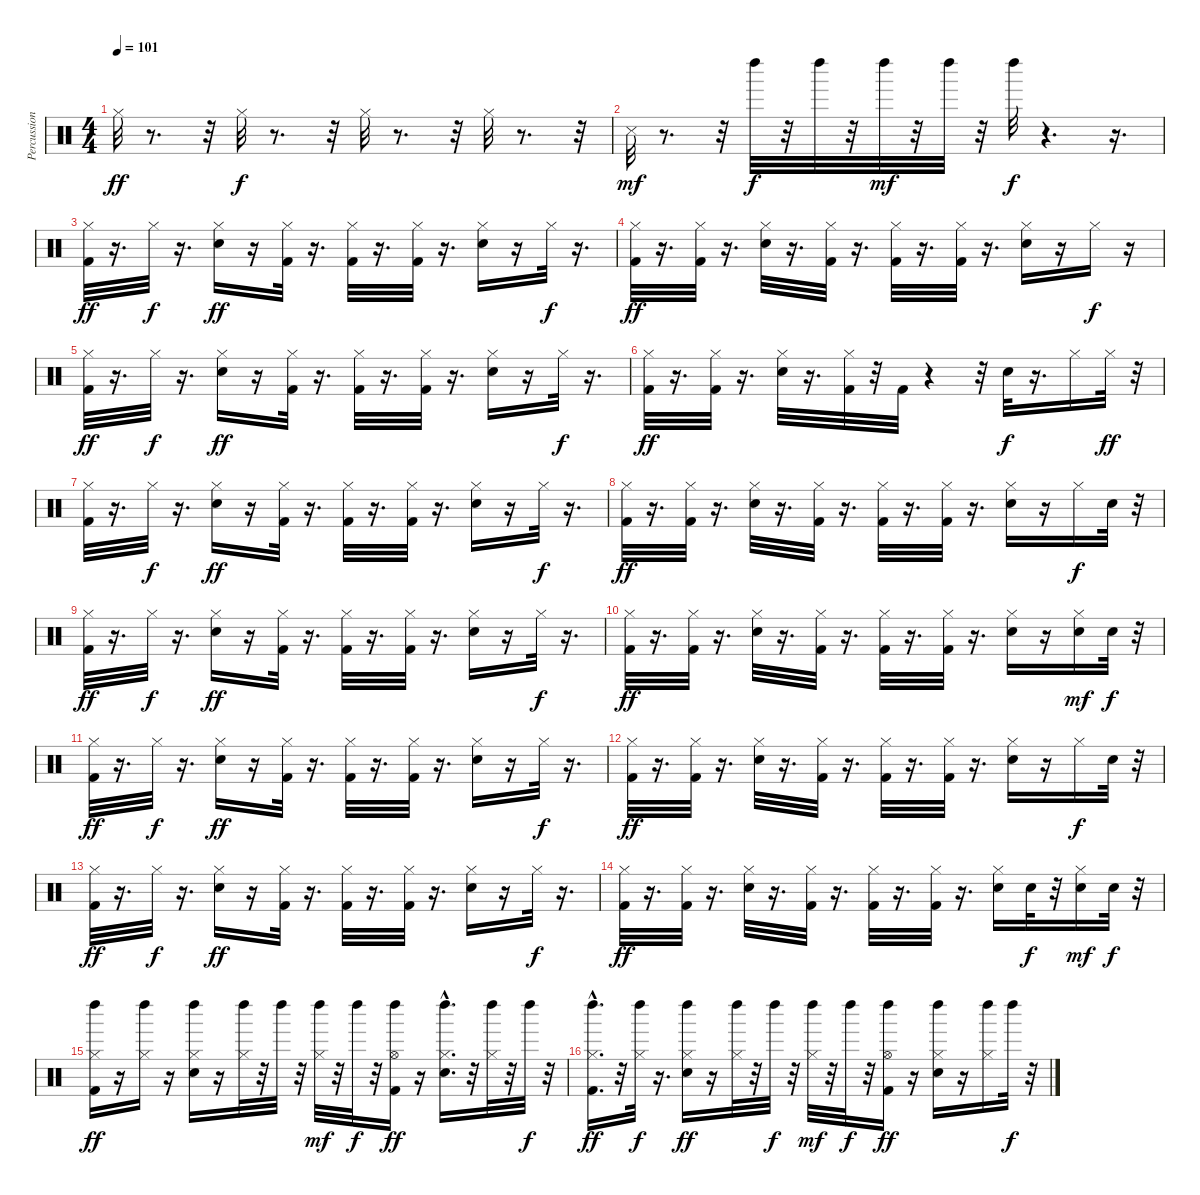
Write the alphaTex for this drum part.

\track ("Percussion" "Percussion") {instrument percussion}
\staff {score}
\articulation defaults
\ts (4 4)
\tempo 101
\clef neutral
\ks c "Hi-Hat (closed)".32{dy ff}
r.8{d} r.32 "Hi-Hat (closed)".32{dy f} r.8{d} r.32 "Hi-Hat (closed)".32 r.8{d} r.32 "Hi-Hat (closed)".32 r.8{d} r.32 |
"Snare (side stick) 3".32{dy mf} r.8{d} r.32 "Left Maraca (hit)".32{dy f} r.32 "Left Maraca (hit)".32 r.32 "Left Maraca (hit)".32{dy mf} r.32 "Left Maraca (hit)".32 r.32 "Left Maraca (hit)".32{dy f} r.4{d} r.16{d} |
("Kick (hit) 2" "Hi-Hat (closed)").32{dy ff} r.16{d} "Hi-Hat (closed)".32{dy f} r.16{d} ("Snare (hit) 2" "Hi-Hat (closed)").16{dy ff} r.16 ("Kick (hit) 2" "Hi-Hat (closed)").32 r.16{d} ("Kick (hit) 2" "Hi-Hat (closed)").32 r.16{d} ("Kick (hit) 2" "Hi-Hat (closed)").32 r.16{d} ("Snare (hit) 2" "Hi-Hat (closed)").16 r.16 "Hi-Hat (closed)".32{dy f} r.16{d} |
("Kick (hit) 2" "Hi-Hat (closed)").32{dy ff} r.16{d} ("Kick (hit) 2" "Hi-Hat (closed)").32 r.16{d} ("Snare (hit) 2" "Hi-Hat (closed)").32 r.16{d} ("Kick (hit) 2" "Hi-Hat (closed)").32 r.16{d} ("Kick (hit) 2" "Hi-Hat (closed)").32 r.16{d} ("Kick (hit) 2" "Hi-Hat (closed)").32 r.16{d} ("Snare (hit) 2" "Hi-Hat (closed)").16 r.16 "Hi-Hat (closed)".16{dy f} r.16 |
("Kick (hit) 2" "Hi-Hat (closed)").32{dy ff} r.16{d} "Hi-Hat (closed)".32{dy f} r.16{d} ("Snare (hit) 2" "Hi-Hat (closed)").16{dy ff} r.16 ("Kick (hit) 2" "Hi-Hat (closed)").32 r.16{d} ("Kick (hit) 2" "Hi-Hat (closed)").32 r.16{d} ("Kick (hit) 2" "Hi-Hat (closed)").32 r.16{d} ("Snare (hit) 2" "Hi-Hat (closed)").16 r.16 "Hi-Hat (closed)".32{dy f} r.16{d} |
("Kick (hit) 2" "Hi-Hat (closed)").32{dy ff} r.16{d} ("Kick (hit) 2" "Hi-Hat (closed)").32 r.16{d} ("Snare (hit) 2" "Hi-Hat (closed)").32 r.16{d} ("Kick (hit) 2" "Hi-Hat (closed)").32 r.32 "Kick (hit) 2".32 r.4 r.32 "Snare (hit) 2".32{dy f} r.16{d} "Hi-Hat (closed)".16 "Hi-Hat (closed)".32{dy ff} r.32 |
("Kick (hit) 2" "Hi-Hat (closed)").32 r.16{d} "Hi-Hat (closed)".32{dy f} r.16{d} ("Snare (hit) 2" "Hi-Hat (closed)").16{dy ff} r.16 ("Kick (hit) 2" "Hi-Hat (closed)").32 r.16{d} ("Kick (hit) 2" "Hi-Hat (closed)").32 r.16{d} ("Kick (hit) 2" "Hi-Hat (closed)").32 r.16{d} ("Snare (hit) 2" "Hi-Hat (closed)").16 r.16 "Hi-Hat (closed)".32{dy f} r.16{d} |
("Kick (hit) 2" "Hi-Hat (closed)").32{dy ff} r.16{d} ("Kick (hit) 2" "Hi-Hat (closed)").32 r.16{d} ("Snare (hit) 2" "Hi-Hat (closed)").32 r.16{d} ("Kick (hit) 2" "Hi-Hat (closed)").32 r.16{d} ("Kick (hit) 2" "Hi-Hat (closed)").32 r.16{d} ("Kick (hit) 2" "Hi-Hat (closed)").32 r.16{d} ("Snare (hit) 2" "Hi-Hat (closed)").16 r.16 "Hi-Hat (closed)".16{dy f} "Snare (hit) 2".32 r.32 |
("Kick (hit) 2" "Hi-Hat (closed)").32{dy ff} r.16{d} "Hi-Hat (closed)".32{dy f} r.16{d} ("Snare (hit) 2" "Hi-Hat (closed)").16{dy ff} r.16 ("Kick (hit) 2" "Hi-Hat (closed)").32 r.16{d} ("Kick (hit) 2" "Hi-Hat (closed)").32 r.16{d} ("Kick (hit) 2" "Hi-Hat (closed)").32 r.16{d} ("Snare (hit) 2" "Hi-Hat (closed)").16 r.16 "Hi-Hat (closed)".32{dy f} r.16{d} |
("Kick (hit) 2" "Hi-Hat (closed)").32{dy ff} r.16{d} ("Kick (hit) 2" "Hi-Hat (closed)").32 r.16{d} ("Snare (hit) 2" "Hi-Hat (closed)").32 r.16{d} ("Kick (hit) 2" "Hi-Hat (closed)").32 r.16{d} ("Kick (hit) 2" "Hi-Hat (closed)").32 r.16{d} ("Kick (hit) 2" "Hi-Hat (closed)").32 r.16{d} ("Snare (hit) 2" "Hi-Hat (closed)").16 r.16 ("Snare (hit) 2" "Hi-Hat (closed)").16{dy mf} "Snare (hit) 2".32{dy f} r.32 |
("Kick (hit) 2" "Hi-Hat (closed)").32{dy ff} r.16{d} "Hi-Hat (closed)".32{dy f} r.16{d} ("Snare (hit) 2" "Hi-Hat (closed)").16{dy ff} r.16 ("Kick (hit) 2" "Hi-Hat (closed)").32 r.16{d} ("Kick (hit) 2" "Hi-Hat (closed)").32 r.16{d} ("Kick (hit) 2" "Hi-Hat (closed)").32 r.16{d} ("Snare (hit) 2" "Hi-Hat (closed)").16 r.16 "Hi-Hat (closed)".32{dy f} r.16{d} |
("Kick (hit) 2" "Hi-Hat (closed)").32{dy ff} r.16{d} ("Kick (hit) 2" "Hi-Hat (closed)").32 r.16{d} ("Snare (hit) 2" "Hi-Hat (closed)").32 r.16{d} ("Kick (hit) 2" "Hi-Hat (closed)").32 r.16{d} ("Kick (hit) 2" "Hi-Hat (closed)").32 r.16{d} ("Kick (hit) 2" "Hi-Hat (closed)").32 r.16{d} ("Snare (hit) 2" "Hi-Hat (closed)").16 r.16 "Hi-Hat (closed)".16{dy f} "Snare (hit) 2".32 r.32 |
("Kick (hit) 2" "Hi-Hat (closed)").32{dy ff} r.16{d} "Hi-Hat (closed)".32{dy f} r.16{d} ("Snare (hit) 2" "Hi-Hat (closed)").16{dy ff} r.16 ("Kick (hit) 2" "Hi-Hat (closed)").32 r.16{d} ("Kick (hit) 2" "Hi-Hat (closed)").32 r.16{d} ("Kick (hit) 2" "Hi-Hat (closed)").32 r.16{d} ("Snare (hit) 2" "Hi-Hat (closed)").16 r.16 "Hi-Hat (closed)".32{dy f} r.16{d} |
("Kick (hit) 2" "Hi-Hat (closed)").32{dy ff} r.16{d} ("Kick (hit) 2" "Hi-Hat (closed)").32 r.16{d} ("Snare (hit) 2" "Hi-Hat (closed)").32 r.16{d} ("Kick (hit) 2" "Hi-Hat (closed)").32 r.16{d} ("Kick (hit) 2" "Hi-Hat (closed)").32 r.16{d} ("Kick (hit) 2" "Hi-Hat (closed)").32 r.16{d} ("Snare (hit) 2" "Hi-Hat (closed)").16 "Snare (hit) 2".32{dy f} r.32 ("Snare (hit) 2" "Hi-Hat (closed)").16{dy mf} "Snare (hit) 2".32{dy f} r.32 |
("Kick (hit) 2" "Hi-Hat (closed)" "Left Maraca (hit)").16{dy ff} r.16 ("Hi-Hat (closed)" "Left Maraca (hit)").16 r.16 ("Snare (hit) 2" "Hi-Hat (closed)" "Left Maraca (hit)").16 r.16 ("Hi-Hat (closed)" "Left Maraca (hit)").32 r.32 "Left Maraca (hit)".32 r.32 ("Hi-Hat (closed)" "Left Maraca (hit)").32{dy mf} r.32 "Left Maraca (hit)".32{dy f} r.32 ("Kick (hit) 2" "Hi-Hat (open)" "Left Maraca (hit)").16{dy ff} r.16 ("Snare (hit) 2"{hac} "Hi-Hat (closed)" "Left Maraca (hit)").16{d} r.32 ("Hi-Hat (closed)" "Left Maraca (hit)").32 r.32 "Left Maraca (hit)".32{dy f} r.32 |
("Kick (hit) 2"{hac} "Hi-Hat (closed)" "Left Maraca (hit)").16{d dy ff} r.32 ("Hi-Hat (closed)" "Left Maraca (hit)").32{dy f} r.16{d} ("Snare (hit) 2" "Hi-Hat (closed)" "Left Maraca (hit)").16{dy ff} r.16 ("Hi-Hat (closed)" "Left Maraca (hit)").32 r.32 "Left Maraca (hit)".32{dy f} r.32 ("Hi-Hat (closed)" "Left Maraca (hit)").32{dy mf} r.32 "Left Maraca (hit)".32{dy f} r.32 ("Kick (hit) 2" "Hi-Hat (open)" "Left Maraca (hit)").16{dy ff} r.16 ("Snare (hit) 2" "Hi-Hat (closed)" "Left Maraca (hit)").16 r.16 ("Hi-Hat (closed)" "Left Maraca (hit)").16 "Left Maraca (hit)".32{dy f} r.32
